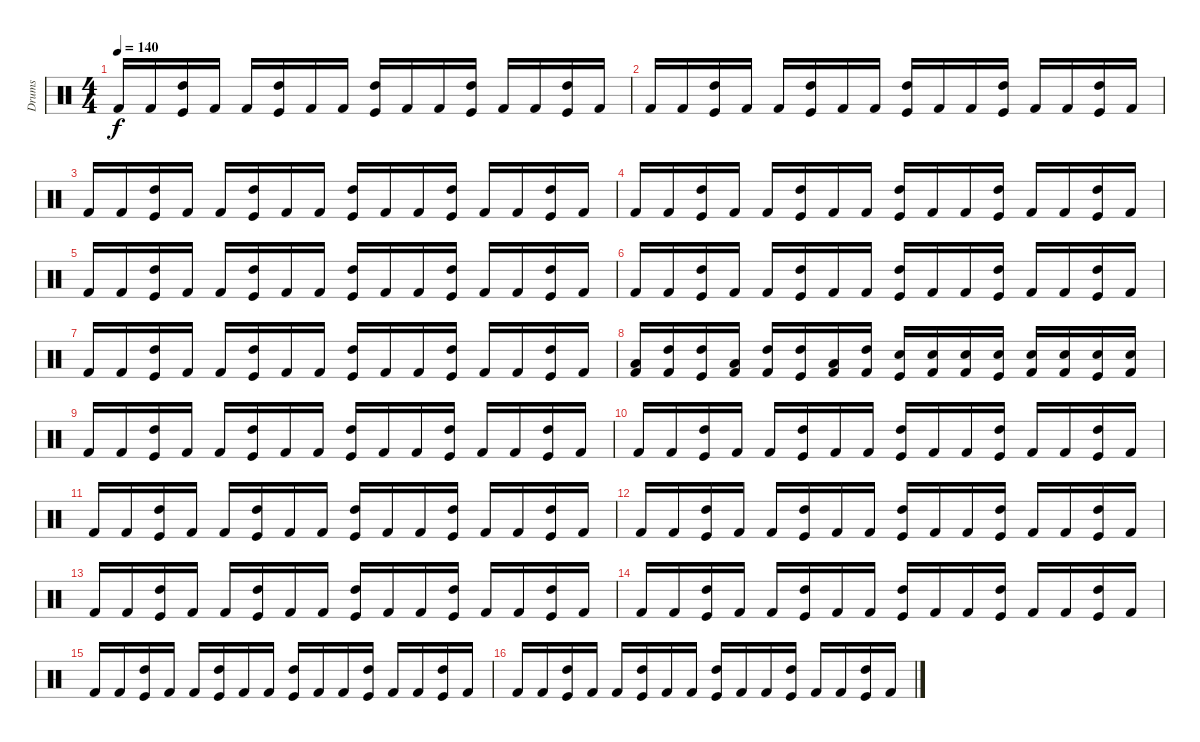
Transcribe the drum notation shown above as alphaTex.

\track ("Drums" "Drums") {instrument percussion}
\staff {score}
\articulation defaults
\ts (4 4)
\tempo 140
\clef neutral
\ks c "Kick (hit) 2".16{dy f} "Kick (hit) 2".16
("Kick (hit)" "High Tom (hit)").16 "Kick (hit) 2".16 "Kick (hit) 2".16 ("Kick (hit)" "High Tom (hit)").16 "Kick (hit) 2".16 "Kick (hit) 2".16 ("Kick (hit)" "High Tom (hit)").16 "Kick (hit) 2".16 "Kick (hit) 2".16 ("Kick (hit)" "High Tom (hit)").16 "Kick (hit) 2".16 "Kick (hit) 2".16 ("Kick (hit)" "High Tom (hit)").16 "Kick (hit) 2".16 |
"Kick (hit) 2".16 "Kick (hit) 2".16 ("Kick (hit)" "High Tom (hit)").16 "Kick (hit) 2".16 "Kick (hit) 2".16 ("Kick (hit)" "High Tom (hit)").16 "Kick (hit) 2".16 "Kick (hit) 2".16 ("Kick (hit)" "High Tom (hit)").16 "Kick (hit) 2".16 "Kick (hit) 2".16 ("Kick (hit)" "High Tom (hit)").16 "Kick (hit) 2".16 "Kick (hit) 2".16 ("Kick (hit)" "High Tom (hit)").16 "Kick (hit) 2".16 |
"Kick (hit) 2".16 "Kick (hit) 2".16 ("Kick (hit)" "High Tom (hit)").16 "Kick (hit) 2".16 "Kick (hit) 2".16 ("Kick (hit)" "High Tom (hit)").16 "Kick (hit) 2".16 "Kick (hit) 2".16 ("Kick (hit)" "High Tom (hit)").16 "Kick (hit) 2".16 "Kick (hit) 2".16 ("Kick (hit)" "High Tom (hit)").16 "Kick (hit) 2".16 "Kick (hit) 2".16 ("Kick (hit)" "High Tom (hit)").16 "Kick (hit) 2".16 |
"Kick (hit) 2".16 "Kick (hit) 2".16 ("Kick (hit)" "High Tom (hit)").16 "Kick (hit) 2".16 "Kick (hit) 2".16 ("Kick (hit)" "High Tom (hit)").16 "Kick (hit) 2".16 "Kick (hit) 2".16 ("Kick (hit)" "High Tom (hit)").16 "Kick (hit) 2".16 "Kick (hit) 2".16 ("Kick (hit)" "High Tom (hit)").16 "Kick (hit) 2".16 "Kick (hit) 2".16 ("Kick (hit)" "High Tom (hit)").16 "Kick (hit) 2".16 |
"Kick (hit) 2".16 "Kick (hit) 2".16 ("Kick (hit)" "High Tom (hit)").16 "Kick (hit) 2".16 "Kick (hit) 2".16 ("Kick (hit)" "High Tom (hit)").16 "Kick (hit) 2".16 "Kick (hit) 2".16 ("Kick (hit)" "High Tom (hit)").16 "Kick (hit) 2".16 "Kick (hit) 2".16 ("Kick (hit)" "High Tom (hit)").16 "Kick (hit) 2".16 "Kick (hit) 2".16 ("Kick (hit)" "High Tom (hit)").16 "Kick (hit) 2".16 |
"Kick (hit) 2".16 "Kick (hit) 2".16 ("Kick (hit)" "High Tom (hit)").16 "Kick (hit) 2".16 "Kick (hit) 2".16 ("Kick (hit)" "High Tom (hit)").16 "Kick (hit) 2".16 "Kick (hit) 2".16 ("Kick (hit)" "High Tom (hit)").16 "Kick (hit) 2".16 "Kick (hit) 2".16 ("Kick (hit)" "High Tom (hit)").16 "Kick (hit) 2".16 "Kick (hit) 2".16 ("Kick (hit)" "High Tom (hit)").16 "Kick (hit) 2".16 |
"Kick (hit) 2".16 "Kick (hit) 2".16 ("Kick (hit)" "High Tom (hit)").16 "Kick (hit) 2".16 "Kick (hit) 2".16 ("Kick (hit)" "High Tom (hit)").16 "Kick (hit) 2".16 "Kick (hit) 2".16 ("Kick (hit)" "High Tom (hit)").16 "Kick (hit) 2".16 "Kick (hit) 2".16 ("Kick (hit)" "High Tom (hit)").16 "Kick (hit) 2".16 "Kick (hit) 2".16 ("Kick (hit)" "High Tom (hit)").16 "Kick (hit) 2".16 |
("Kick (hit) 2" "Low Tom (hit)").16 ("Kick (hit) 2" "High Tom (hit)").16 ("Kick (hit)" "High Tom (hit)").16 ("Kick (hit) 2" "Low Tom (hit)").16 ("Kick (hit) 2" "High Tom (hit)").16 ("Kick (hit)" "High Tom (hit)").16 ("Kick (hit) 2" "Low Tom (hit)").16 ("Kick (hit) 2" "High Tom (hit)").16 ("Kick (hit)" "Snare (hit) 2").16 ("Kick (hit) 2" "Snare (hit) 2").16 ("Kick (hit) 2" "Snare (hit) 2").16 ("Kick (hit)" "Snare (hit) 2").16 ("Kick (hit) 2" "Snare (hit) 2").16 ("Kick (hit) 2" "Snare (hit) 2").16 ("Kick (hit)" "Snare (hit) 2").16 ("Kick (hit) 2" "Snare (hit) 2").16 |
"Kick (hit) 2".16 "Kick (hit) 2".16 ("Kick (hit)" "High Tom (hit)").16 "Kick (hit) 2".16 "Kick (hit) 2".16 ("Kick (hit)" "High Tom (hit)").16 "Kick (hit) 2".16 "Kick (hit) 2".16 ("Kick (hit)" "High Tom (hit)").16 "Kick (hit) 2".16 "Kick (hit) 2".16 ("Kick (hit)" "High Tom (hit)").16 "Kick (hit) 2".16 "Kick (hit) 2".16 ("Kick (hit)" "High Tom (hit)").16 "Kick (hit) 2".16 |
"Kick (hit) 2".16 "Kick (hit) 2".16 ("Kick (hit)" "High Tom (hit)").16 "Kick (hit) 2".16 "Kick (hit) 2".16 ("Kick (hit)" "High Tom (hit)").16 "Kick (hit) 2".16 "Kick (hit) 2".16 ("Kick (hit)" "High Tom (hit)").16 "Kick (hit) 2".16 "Kick (hit) 2".16 ("Kick (hit)" "High Tom (hit)").16 "Kick (hit) 2".16 "Kick (hit) 2".16 ("Kick (hit)" "High Tom (hit)").16 "Kick (hit) 2".16 |
"Kick (hit) 2".16 "Kick (hit) 2".16 ("Kick (hit)" "High Tom (hit)").16 "Kick (hit) 2".16 "Kick (hit) 2".16 ("Kick (hit)" "High Tom (hit)").16 "Kick (hit) 2".16 "Kick (hit) 2".16 ("Kick (hit)" "High Tom (hit)").16 "Kick (hit) 2".16 "Kick (hit) 2".16 ("Kick (hit)" "High Tom (hit)").16 "Kick (hit) 2".16 "Kick (hit) 2".16 ("Kick (hit)" "High Tom (hit)").16 "Kick (hit) 2".16 |
"Kick (hit) 2".16 "Kick (hit) 2".16 ("Kick (hit)" "High Tom (hit)").16 "Kick (hit) 2".16 "Kick (hit) 2".16 ("Kick (hit)" "High Tom (hit)").16 "Kick (hit) 2".16 "Kick (hit) 2".16 ("Kick (hit)" "High Tom (hit)").16 "Kick (hit) 2".16 "Kick (hit) 2".16 ("Kick (hit)" "High Tom (hit)").16 "Kick (hit) 2".16 "Kick (hit) 2".16 ("Kick (hit)" "High Tom (hit)").16 "Kick (hit) 2".16 |
"Kick (hit) 2".16 "Kick (hit) 2".16 ("Kick (hit)" "High Tom (hit)").16 "Kick (hit) 2".16 "Kick (hit) 2".16 ("Kick (hit)" "High Tom (hit)").16 "Kick (hit) 2".16 "Kick (hit) 2".16 ("Kick (hit)" "High Tom (hit)").16 "Kick (hit) 2".16 "Kick (hit) 2".16 ("Kick (hit)" "High Tom (hit)").16 "Kick (hit) 2".16 "Kick (hit) 2".16 ("Kick (hit)" "High Tom (hit)").16 "Kick (hit) 2".16 |
"Kick (hit) 2".16 "Kick (hit) 2".16 ("Kick (hit)" "High Tom (hit)").16 "Kick (hit) 2".16 "Kick (hit) 2".16 ("Kick (hit)" "High Tom (hit)").16 "Kick (hit) 2".16 "Kick (hit) 2".16 ("Kick (hit)" "High Tom (hit)").16 "Kick (hit) 2".16 "Kick (hit) 2".16 ("Kick (hit)" "High Tom (hit)").16 "Kick (hit) 2".16 "Kick (hit) 2".16 ("Kick (hit)" "High Tom (hit)").16 "Kick (hit) 2".16 |
"Kick (hit) 2".16 "Kick (hit) 2".16 ("Kick (hit)" "High Tom (hit)").16 "Kick (hit) 2".16 "Kick (hit) 2".16 ("Kick (hit)" "High Tom (hit)").16 "Kick (hit) 2".16 "Kick (hit) 2".16 ("Kick (hit)" "High Tom (hit)").16 "Kick (hit) 2".16 "Kick (hit) 2".16 ("Kick (hit)" "High Tom (hit)").16 "Kick (hit) 2".16 "Kick (hit) 2".16 ("Kick (hit)" "High Tom (hit)").16 "Kick (hit) 2".16 |
"Kick (hit) 2".16 "Kick (hit) 2".16 ("Kick (hit)" "High Tom (hit)").16 "Kick (hit) 2".16 "Kick (hit) 2".16 ("Kick (hit)" "High Tom (hit)").16 "Kick (hit) 2".16 "Kick (hit) 2".16 ("Kick (hit)" "High Tom (hit)").16 "Kick (hit) 2".16 "Kick (hit) 2".16 ("Kick (hit)" "High Tom (hit)").16 "Kick (hit) 2".16 "Kick (hit) 2".16 ("Kick (hit)" "High Tom (hit)").16 "Kick (hit) 2".16
